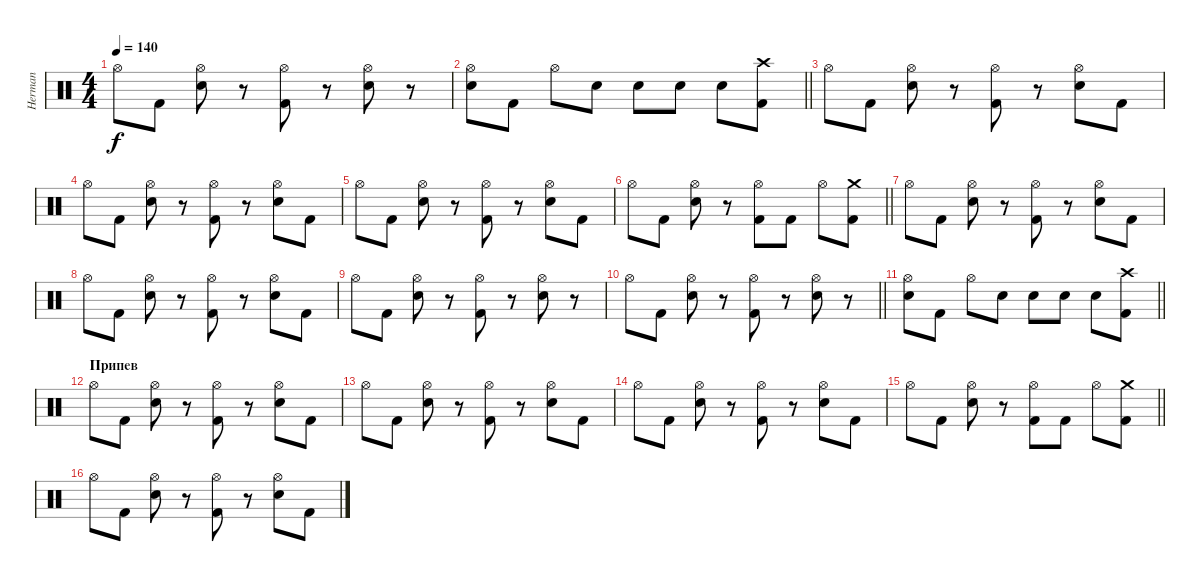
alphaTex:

\track ("Herman" "Herman") {instrument percussion}
\staff {score}
\articulation defaults
\ts (4 4)
\tempo 140
\clef neutral
\ks c "Hi-Hat (open)".8{dy f} "Kick (hit) 2".8
("Hi-Hat (open)" "Electric Snare (hit)").8 r.8 ("Hi-Hat (open)" "Kick (hit) 2").8 r.8 ("Hi-Hat (open)" "Electric Snare (hit)").8 r.8 |
\barLineRight lightlight
("Hi-Hat (open)" "Electric Snare (hit)").8 "Kick (hit) 2".8 "Hi-Hat (open)".8 "Electric Snare (hit)".8 "Electric Snare (hit)".8 "Electric Snare (hit)".8 "Electric Snare (hit)".8 ("Crash high (hit)" "Kick (hit) 2").8 |
"Hi-Hat (open)".8 "Kick (hit) 2".8 ("Hi-Hat (open)" "Electric Snare (hit)").8 r.8 ("Hi-Hat (open)" "Kick (hit) 2").8 r.8 ("Hi-Hat (open)" "Electric Snare (hit)").8 "Kick (hit) 2".8 |
"Hi-Hat (open)".8 "Kick (hit) 2".8 ("Hi-Hat (open)" "Electric Snare (hit)").8 r.8 ("Hi-Hat (open)" "Kick (hit) 2").8 r.8 ("Hi-Hat (open)" "Electric Snare (hit)").8 "Kick (hit) 2".8 |
"Hi-Hat (open)".8 "Kick (hit) 2".8 ("Hi-Hat (open)" "Electric Snare (hit)").8 r.8 ("Hi-Hat (open)" "Kick (hit) 2").8 r.8 ("Hi-Hat (open)" "Electric Snare (hit)").8 "Kick (hit) 2".8 |
\barLineRight lightlight "Hi-Hat (open)".8 "Kick (hit) 2".8
("Hi-Hat (open)" "Electric Snare (hit)").8 r.8 ("Hi-Hat (open)" "Kick (hit) 2").8 "Kick (hit) 2".8 "Hi-Hat (open)".8 ("Crash medium (hit)" "Kick (hit) 2").8 |
"Hi-Hat (open)".8 "Kick (hit) 2".8 ("Hi-Hat (open)" "Electric Snare (hit)").8 r.8 ("Hi-Hat (open)" "Kick (hit) 2").8 r.8 ("Hi-Hat (open)" "Electric Snare (hit)").8 "Kick (hit) 2".8 |
"Hi-Hat (open)".8 "Kick (hit) 2".8 ("Hi-Hat (open)" "Electric Snare (hit)").8 r.8 ("Hi-Hat (open)" "Kick (hit) 2").8 r.8 ("Hi-Hat (open)" "Electric Snare (hit)").8 "Kick (hit) 2".8 |
"Hi-Hat (open)".8 "Kick (hit) 2".8 ("Hi-Hat (open)" "Electric Snare (hit)").8 r.8 ("Hi-Hat (open)" "Kick (hit) 2").8 r.8 ("Hi-Hat (open)" "Electric Snare (hit)").8 r.8 |
\barLineRight lightlight "Hi-Hat (open)".8 "Kick (hit) 2".8
("Hi-Hat (open)" "Electric Snare (hit)").8 r.8 ("Hi-Hat (open)" "Kick (hit) 2").8 r.8 ("Hi-Hat (open)" "Electric Snare (hit)").8 r.8 |
\barLineRight lightlight
("Hi-Hat (open)" "Electric Snare (hit)").8 "Kick (hit) 2".8 "Hi-Hat (open)".8 "Electric Snare (hit)".8 "Electric Snare (hit)".8 "Electric Snare (hit)".8 "Electric Snare (hit)".8 ("Crash high (hit)" "Kick (hit) 2").8 |
\section ("" "Припев")
"Hi-Hat (open)".8 "Kick (hit) 2".8 ("Hi-Hat (open)" "Electric Snare (hit)").8 r.8 ("Hi-Hat (open)" "Kick (hit) 2").8 r.8 ("Hi-Hat (open)" "Electric Snare (hit)").8 "Kick (hit) 2".8 |
"Hi-Hat (open)".8 "Kick (hit) 2".8 ("Hi-Hat (open)" "Electric Snare (hit)").8 r.8 ("Hi-Hat (open)" "Kick (hit) 2").8 r.8 ("Hi-Hat (open)" "Electric Snare (hit)").8 "Kick (hit) 2".8 |
"Hi-Hat (open)".8 "Kick (hit) 2".8 ("Hi-Hat (open)" "Electric Snare (hit)").8 r.8 ("Hi-Hat (open)" "Kick (hit) 2").8 r.8 ("Hi-Hat (open)" "Electric Snare (hit)").8 "Kick (hit) 2".8 |
\barLineRight lightlight "Hi-Hat (open)".8 "Kick (hit) 2".8
("Hi-Hat (open)" "Electric Snare (hit)").8 r.8 ("Hi-Hat (open)" "Kick (hit) 2").8 "Kick (hit) 2".8 "Hi-Hat (open)".8 ("Crash medium (hit)" "Kick (hit) 2").8 |
"Hi-Hat (open)".8 "Kick (hit) 2".8 ("Hi-Hat (open)" "Electric Snare (hit)").8 r.8 ("Hi-Hat (open)" "Kick (hit) 2").8 r.8 ("Hi-Hat (open)" "Electric Snare (hit)").8 "Kick (hit) 2".8
